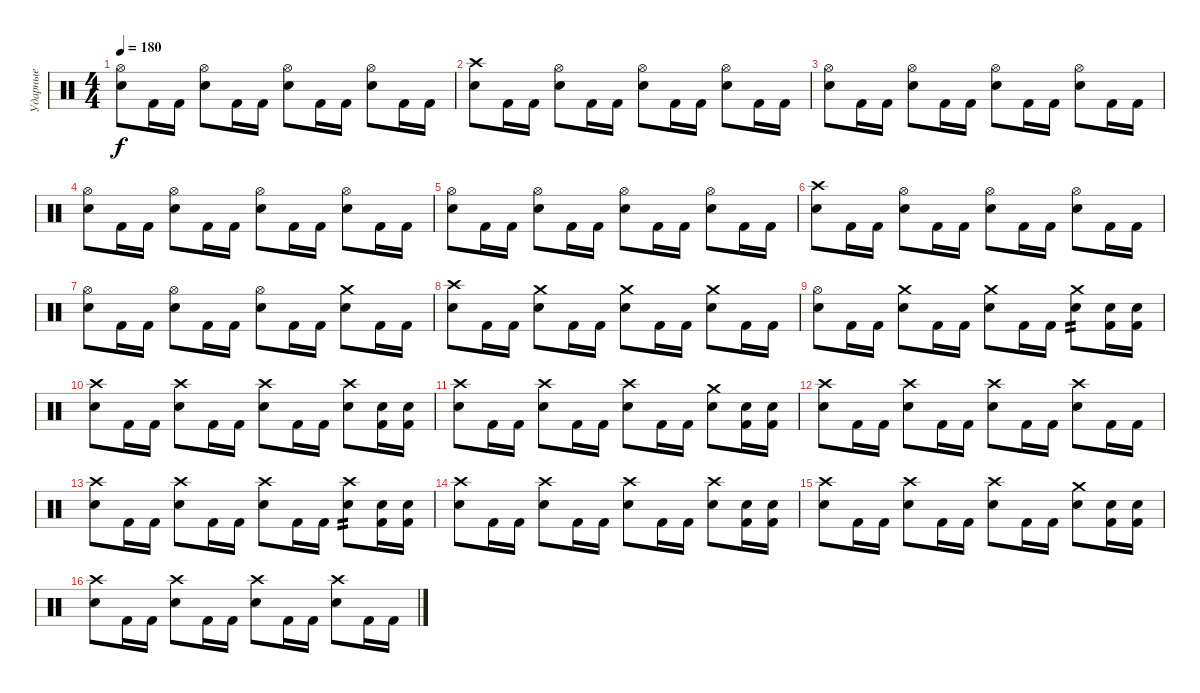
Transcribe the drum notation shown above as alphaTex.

\track ("Ударные" "Ударные") {instrument percussion}
\staff {score}
\articulation defaults
\ts (4 4)
\tempo 180
\clef neutral
\ks c
("Hi-Hat (open)" "Electric Snare (hit)").8{dy f} "Kick (hit) 2".16 "Kick (hit) 2".16 ("Hi-Hat (open)" "Electric Snare (hit)").8 "Kick (hit) 2".16 "Kick (hit) 2".16 ("Hi-Hat (open)" "Electric Snare (hit)").8 "Kick (hit) 2".16 "Kick (hit) 2".16 ("Hi-Hat (open)" "Electric Snare (hit)").8 "Kick (hit) 2".16 "Kick (hit) 2".16 |
("Crash high (hit)" "Electric Snare (hit)").8 "Kick (hit) 2".16 "Kick (hit) 2".16 ("Hi-Hat (open)" "Electric Snare (hit)").8 "Kick (hit) 2".16 "Kick (hit) 2".16 ("Hi-Hat (open)" "Electric Snare (hit)").8 "Kick (hit) 2".16 "Kick (hit) 2".16 ("Hi-Hat (open)" "Electric Snare (hit)").8 "Kick (hit) 2".16 "Kick (hit) 2".16 |
("Hi-Hat (open)" "Electric Snare (hit)").8 "Kick (hit) 2".16 "Kick (hit) 2".16 ("Hi-Hat (open)" "Electric Snare (hit)").8 "Kick (hit) 2".16 "Kick (hit) 2".16 ("Hi-Hat (open)" "Electric Snare (hit)").8 "Kick (hit) 2".16 "Kick (hit) 2".16 ("Hi-Hat (open)" "Electric Snare (hit)").8 "Kick (hit) 2".16 "Kick (hit) 2".16 |
("Hi-Hat (open)" "Electric Snare (hit)").8 "Kick (hit) 2".16 "Kick (hit) 2".16 ("Hi-Hat (open)" "Electric Snare (hit)").8 "Kick (hit) 2".16 "Kick (hit) 2".16 ("Hi-Hat (open)" "Electric Snare (hit)").8 "Kick (hit) 2".16 "Kick (hit) 2".16 ("Hi-Hat (open)" "Electric Snare (hit)").8 "Kick (hit) 2".16 "Kick (hit) 2".16 |
("Hi-Hat (open)" "Electric Snare (hit)").8 "Kick (hit) 2".16 "Kick (hit) 2".16 ("Hi-Hat (open)" "Electric Snare (hit)").8 "Kick (hit) 2".16 "Kick (hit) 2".16 ("Hi-Hat (open)" "Electric Snare (hit)").8 "Kick (hit) 2".16 "Kick (hit) 2".16 ("Hi-Hat (open)" "Electric Snare (hit)").8 "Kick (hit) 2".16 "Kick (hit) 2".16 |
("Crash high (hit)" "Electric Snare (hit)").8 "Kick (hit) 2".16 "Kick (hit) 2".16 ("Hi-Hat (open)" "Electric Snare (hit)").8 "Kick (hit) 2".16 "Kick (hit) 2".16 ("Hi-Hat (open)" "Electric Snare (hit)").8 "Kick (hit) 2".16 "Kick (hit) 2".16 ("Hi-Hat (open)" "Electric Snare (hit)").8 "Kick (hit) 2".16 "Kick (hit) 2".16 |
("Hi-Hat (open)" "Electric Snare (hit)").8 "Kick (hit) 2".16 "Kick (hit) 2".16 ("Hi-Hat (open)" "Electric Snare (hit)").8 "Kick (hit) 2".16 "Kick (hit) 2".16 ("Hi-Hat (open)" "Electric Snare (hit)").8 "Kick (hit) 2".16 "Kick (hit) 2".16 ("Crash medium (hit)" "Electric Snare (hit)").8 "Kick (hit) 2".16 "Kick (hit) 2".16 |
("Crash high (hit)" "Electric Snare (hit)").8 "Kick (hit) 2".16 "Kick (hit) 2".16 ("Crash medium (hit)" "Electric Snare (hit)").8 "Kick (hit) 2".16 "Kick (hit) 2".16 ("Crash medium (hit)" "Electric Snare (hit)").8 "Kick (hit) 2".16 "Kick (hit) 2".16 ("Crash medium (hit)" "Electric Snare (hit)").8 "Kick (hit) 2".16 "Kick (hit) 2".16 |
("Hi-Hat (open)" "Electric Snare (hit)").8 "Kick (hit) 2".16 "Kick (hit) 2".16 ("Crash medium (hit)" "Electric Snare (hit)").8 "Kick (hit) 2".16 "Kick (hit) 2".16 ("Crash medium (hit)" "Electric Snare (hit)").8 "Kick (hit) 2".16 "Kick (hit) 2".16 ("Crash medium (hit)" "Electric Snare (hit)").8{tp 2} ("Electric Snare (hit)" "Kick (hit) 2").16 ("Electric Snare (hit)" "Kick (hit) 2").16 |
("Crash high (hit)" "Electric Snare (hit)").8 "Kick (hit) 2".16 "Kick (hit) 2".16 ("Crash high (hit)" "Electric Snare (hit)").8 "Kick (hit) 2".16 "Kick (hit) 2".16 ("Crash high (hit)" "Electric Snare (hit)").8 "Kick (hit) 2".16 "Kick (hit) 2".16 ("Crash high (hit)" "Electric Snare (hit)").8 ("Electric Snare (hit)" "Kick (hit) 2").16 ("Electric Snare (hit)" "Kick (hit) 2").16 |
("Crash high (hit)" "Electric Snare (hit)").8 "Kick (hit) 2".16 "Kick (hit) 2".16 ("Crash high (hit)" "Electric Snare (hit)").8 "Kick (hit) 2".16 "Kick (hit) 2".16 ("Crash high (hit)" "Electric Snare (hit)").8 "Kick (hit) 2".16 "Kick (hit) 2".16 ("Crash medium (hit)" "Electric Snare (hit)").8 ("Electric Snare (hit)" "Kick (hit) 2").16 ("Electric Snare (hit)" "Kick (hit) 2").16 |
("Crash high (hit)" "Electric Snare (hit)").8 "Kick (hit) 2".16 "Kick (hit) 2".16 ("Crash high (hit)" "Electric Snare (hit)").8 "Kick (hit) 2".16 "Kick (hit) 2".16 ("Crash high (hit)" "Electric Snare (hit)").8 "Kick (hit) 2".16 "Kick (hit) 2".16 ("Crash high (hit)" "Electric Snare (hit)").8 "Kick (hit) 2".16 "Kick (hit) 2".16 |
("Crash high (hit)" "Electric Snare (hit)").8 "Kick (hit) 2".16 "Kick (hit) 2".16 ("Crash high (hit)" "Electric Snare (hit)").8 "Kick (hit) 2".16 "Kick (hit) 2".16 ("Crash high (hit)" "Electric Snare (hit)").8 "Kick (hit) 2".16 "Kick (hit) 2".16 ("Crash high (hit)" "Electric Snare (hit)").8{tp 2} ("Electric Snare (hit)" "Kick (hit) 2").16 ("Electric Snare (hit)" "Kick (hit) 2").16 |
("Crash high (hit)" "Electric Snare (hit)").8 "Kick (hit) 2".16 "Kick (hit) 2".16 ("Crash high (hit)" "Electric Snare (hit)").8 "Kick (hit) 2".16 "Kick (hit) 2".16 ("Crash high (hit)" "Electric Snare (hit)").8 "Kick (hit) 2".16 "Kick (hit) 2".16 ("Crash high (hit)" "Electric Snare (hit)").8 ("Electric Snare (hit)" "Kick (hit) 2").16 ("Electric Snare (hit)" "Kick (hit) 2").16 |
("Crash high (hit)" "Electric Snare (hit)").8 "Kick (hit) 2".16 "Kick (hit) 2".16 ("Crash high (hit)" "Electric Snare (hit)").8 "Kick (hit) 2".16 "Kick (hit) 2".16 ("Crash high (hit)" "Electric Snare (hit)").8 "Kick (hit) 2".16 "Kick (hit) 2".16 ("Crash medium (hit)" "Electric Snare (hit)").8 ("Electric Snare (hit)" "Kick (hit) 2").16 ("Electric Snare (hit)" "Kick (hit) 2").16 |
("Crash high (hit)" "Electric Snare (hit)").8 "Kick (hit) 2".16 "Kick (hit) 2".16 ("Crash high (hit)" "Electric Snare (hit)").8 "Kick (hit) 2".16 "Kick (hit) 2".16 ("Crash high (hit)" "Electric Snare (hit)").8 "Kick (hit) 2".16 "Kick (hit) 2".16 ("Crash high (hit)" "Electric Snare (hit)").8 "Kick (hit) 2".16 "Kick (hit) 2".16
